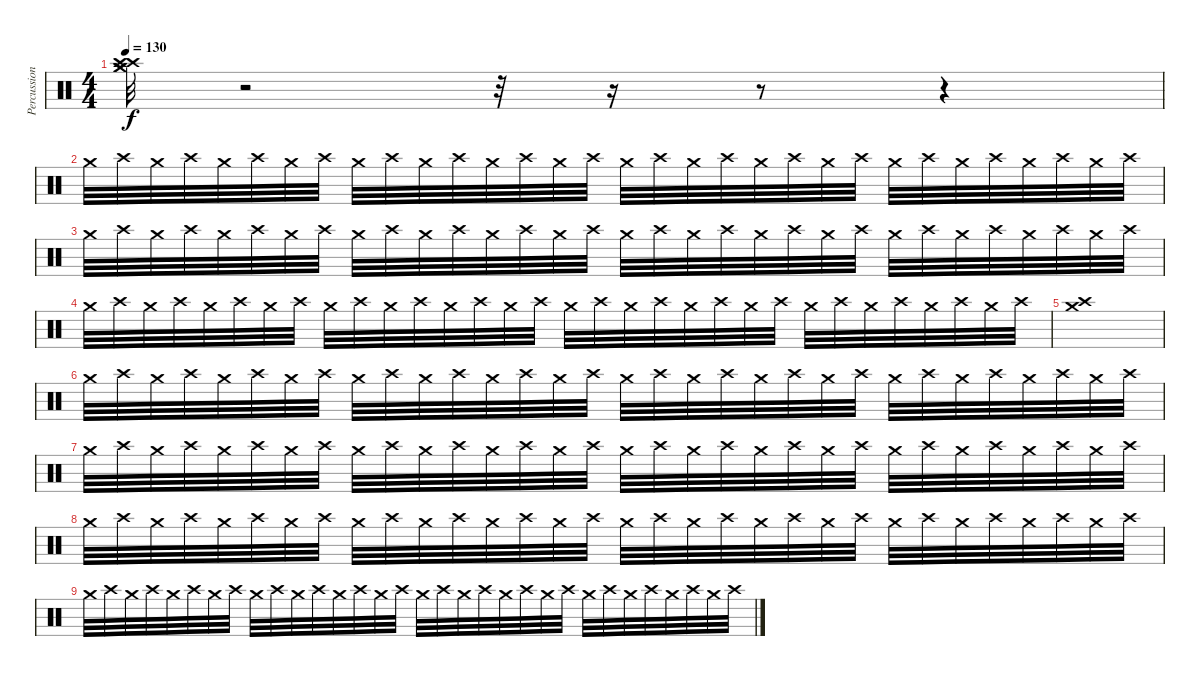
\track ("Percussioni" "Percussion") {instrument percussion}
\staff {score}
\articulation defaults
\ts (4 4)
\tempo 130
\clef neutral
\ks c
("Crash high (hit)" "Crash high (hit)" "Crash medium (hit)" "Crash medium (hit)").32{dy f} r.2 r.32 r.16 r.8 r.4 |
"Crash medium (hit)".32{volume 7} "Crash high (hit)".32 "Crash medium (hit)".32 "Crash high (hit)".32 "Crash medium (hit)".32 "Crash high (hit)".32 "Crash medium (hit)".32 "Crash high (hit)".32 "Crash medium (hit)".32 "Crash high (hit)".32 "Crash medium (hit)".32 "Crash high (hit)".32 "Crash medium (hit)".32 "Crash high (hit)".32 "Crash medium (hit)".32 "Crash high (hit)".32 "Crash medium (hit)".32{volume 9} "Crash high (hit)".32 "Crash medium (hit)".32 "Crash high (hit)".32 "Crash medium (hit)".32 "Crash high (hit)".32 "Crash medium (hit)".32 "Crash high (hit)".32 "Crash medium (hit)".32 "Crash high (hit)".32 "Crash medium (hit)".32 "Crash high (hit)".32 "Crash medium (hit)".32 "Crash high (hit)".32 "Crash medium (hit)".32 "Crash high (hit)".32 |
"Crash medium (hit)".32{volume 12} "Crash high (hit)".32 "Crash medium (hit)".32 "Crash high (hit)".32 "Crash medium (hit)".32 "Crash high (hit)".32 "Crash medium (hit)".32 "Crash high (hit)".32 "Crash medium (hit)".32 "Crash high (hit)".32 "Crash medium (hit)".32 "Crash high (hit)".32 "Crash medium (hit)".32 "Crash high (hit)".32 "Crash medium (hit)".32 "Crash high (hit)".32 "Crash medium (hit)".32{volume 13} "Crash high (hit)".32 "Crash medium (hit)".32 "Crash high (hit)".32 "Crash medium (hit)".32 "Crash high (hit)".32 "Crash medium (hit)".32 "Crash high (hit)".32 "Crash medium (hit)".32 "Crash high (hit)".32 "Crash medium (hit)".32 "Crash high (hit)".32 "Crash medium (hit)".32 "Crash high (hit)".32 "Crash medium (hit)".32 "Crash high (hit)".32 |
"Crash medium (hit)".32{volume 14} "Crash high (hit)".32 "Crash medium (hit)".32 "Crash high (hit)".32 "Crash medium (hit)".32 "Crash high (hit)".32 "Crash medium (hit)".32 "Crash high (hit)".32 "Crash medium (hit)".32 "Crash high (hit)".32 "Crash medium (hit)".32 "Crash high (hit)".32 "Crash medium (hit)".32 "Crash high (hit)".32 "Crash medium (hit)".32 "Crash high (hit)".32 "Crash medium (hit)".32{volume 16} "Crash high (hit)".32 "Crash medium (hit)".32 "Crash high (hit)".32 "Crash medium (hit)".32 "Crash high (hit)".32 "Crash medium (hit)".32 "Crash high (hit)".32 "Crash medium (hit)".32 "Crash high (hit)".32 "Crash medium (hit)".32 "Crash high (hit)".32 "Crash medium (hit)".32 "Crash high (hit)".32 "Crash medium (hit)".32 "Crash high (hit)".32 |
("Crash medium (hit)" "Crash high (hit)").1 |
"Crash medium (hit)".32{volume 7} "Crash high (hit)".32 "Crash medium (hit)".32 "Crash high (hit)".32 "Crash medium (hit)".32 "Crash high (hit)".32 "Crash medium (hit)".32 "Crash high (hit)".32 "Crash medium (hit)".32 "Crash high (hit)".32 "Crash medium (hit)".32 "Crash high (hit)".32 "Crash medium (hit)".32 "Crash high (hit)".32 "Crash medium (hit)".32 "Crash high (hit)".32 "Crash medium (hit)".32{volume 9} "Crash high (hit)".32 "Crash medium (hit)".32 "Crash high (hit)".32 "Crash medium (hit)".32 "Crash high (hit)".32 "Crash medium (hit)".32 "Crash high (hit)".32 "Crash medium (hit)".32 "Crash high (hit)".32 "Crash medium (hit)".32 "Crash high (hit)".32 "Crash medium (hit)".32 "Crash high (hit)".32 "Crash medium (hit)".32 "Crash high (hit)".32 |
"Crash medium (hit)".32{volume 10} "Crash high (hit)".32 "Crash medium (hit)".32 "Crash high (hit)".32 "Crash medium (hit)".32 "Crash high (hit)".32 "Crash medium (hit)".32 "Crash high (hit)".32 "Crash medium (hit)".32 "Crash high (hit)".32 "Crash medium (hit)".32 "Crash high (hit)".32 "Crash medium (hit)".32 "Crash high (hit)".32 "Crash medium (hit)".32 "Crash high (hit)".32 "Crash medium (hit)".32{volume 13} "Crash high (hit)".32 "Crash medium (hit)".32 "Crash high (hit)".32 "Crash medium (hit)".32 "Crash high (hit)".32 "Crash medium (hit)".32 "Crash high (hit)".32 "Crash medium (hit)".32 "Crash high (hit)".32 "Crash medium (hit)".32 "Crash high (hit)".32 "Crash medium (hit)".32 "Crash high (hit)".32 "Crash medium (hit)".32 "Crash high (hit)".32 |
"Crash medium (hit)".32{volume 13} "Crash high (hit)".32 "Crash medium (hit)".32 "Crash high (hit)".32 "Crash medium (hit)".32 "Crash high (hit)".32 "Crash medium (hit)".32 "Crash high (hit)".32 "Crash medium (hit)".32 "Crash high (hit)".32 "Crash medium (hit)".32 "Crash high (hit)".32 "Crash medium (hit)".32 "Crash high (hit)".32 "Crash medium (hit)".32 "Crash high (hit)".32 "Crash medium (hit)".32 "Crash high (hit)".32 "Crash medium (hit)".32 "Crash high (hit)".32 "Crash medium (hit)".32 "Crash high (hit)".32 "Crash medium (hit)".32 "Crash high (hit)".32 "Crash medium (hit)".32 "Crash high (hit)".32 "Crash medium (hit)".32 "Crash high (hit)".32 "Crash medium (hit)".32 "Crash high (hit)".32 "Crash medium (hit)".32 "Crash high (hit)".32 |
"Crash medium (hit)".32{volume 16} "Crash high (hit)".32 "Crash medium (hit)".32 "Crash high (hit)".32 "Crash medium (hit)".32 "Crash high (hit)".32 "Crash medium (hit)".32 "Crash high (hit)".32 "Crash medium (hit)".32 "Crash high (hit)".32 "Crash medium (hit)".32 "Crash high (hit)".32 "Crash medium (hit)".32 "Crash high (hit)".32 "Crash medium (hit)".32 "Crash high (hit)".32 "Crash medium (hit)".32 "Crash high (hit)".32 "Crash medium (hit)".32 "Crash high (hit)".32 "Crash medium (hit)".32 "Crash high (hit)".32 "Crash medium (hit)".32 "Crash high (hit)".32 "Crash medium (hit)".32 "Crash high (hit)".32 "Crash medium (hit)".32 "Crash high (hit)".32 "Crash medium (hit)".32 "Crash high (hit)".32 "Crash medium (hit)".32 "Crash high (hit)".32
